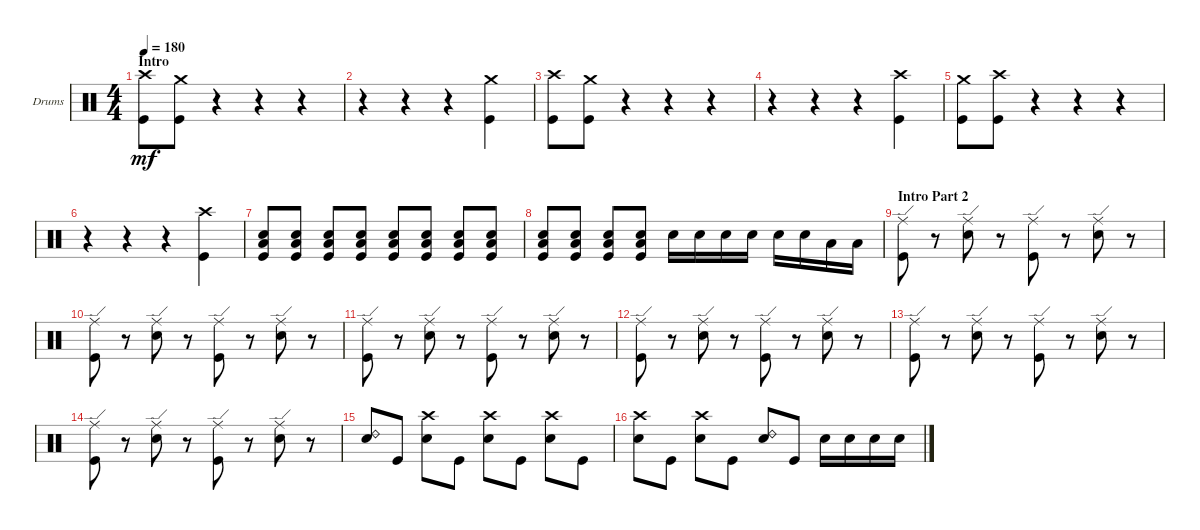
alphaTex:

\defaultSystemsLayout 4
\bracketExtendMode groupsimilarinstruments
\firstSystemTrackNameOrientation horizontal
\otherSystemsTrackNameOrientation horizontal
\track ("Drums" "Drums") {instrument percussion}
\staff {score}
\articulation defaults
\ts (4 4)
\section ("" "Intro")
\tempo 180
\clef neutral
\scale
0.472222
\ks c
("Kick (hit)" "Crash high (hit)").8{dy mf} ("Kick (hit)" "Crash medium (hit)").8 r.4 r.4 r.4 |
\scale
0.263889 r.4 r.4 r.4 ("Kick (hit)" "Crash medium (hit)").4 |
\scale
0.263889 ("Kick (hit)" "Crash high (hit)").8 ("Kick (hit)" "Crash medium (hit)").8 r.4 r.4 r.4 |
\scale
0.333333 r.4 r.4 r.4 ("Kick (hit)" "Crash high (hit)").4 |
\scale
0.333333 ("Kick (hit)" "Crash medium (hit)").8 ("Kick (hit)" "Crash high (hit)").8 r.4 r.4 r.4 |
\scale
0.333333 r.4 r.4 r.4 ("Kick (hit)" "Crash high (hit)").4 |
\scale
0.333333 ("Kick (hit)" "Snare (hit) 2" "Low Tom (hit)").8 ("Kick (hit)" "Snare (hit) 2" "Low Tom (hit)").8 ("Kick (hit)" "Snare (hit) 2" "Low Tom (hit)").8 ("Kick (hit)" "Snare (hit) 2" "Low Tom (hit)").8 ("Kick (hit)" "Snare (hit) 2" "Low Tom (hit)").8 ("Kick (hit)" "Snare (hit) 2" "Low Tom (hit)").8 ("Kick (hit)" "Snare (hit) 2" "Low Tom (hit)").8 ("Kick (hit)" "Snare (hit) 2" "Low Tom (hit)").8 |
\scale
0.333333 ("Kick (hit)" "Snare (hit) 2" "Low Tom (hit)").8 ("Kick (hit)" "Snare (hit) 2" "Low Tom (hit)").8 ("Kick (hit)" "Snare (hit) 2" "Low Tom (hit)").8 ("Kick (hit)" "Snare (hit) 2" "Low Tom (hit)").8 "Snare (hit) 2".16 "Snare (hit) 2".16 "Snare (hit) 2".16 "Snare (hit) 2".16 "Snare (hit) 2".16 "Snare (hit) 2".16 "Low Tom (hit)".16 "Low Tom (hit)".16 |
\section ("" "Intro Part 2")
\scale
0.333333 ("Kick (hit)" "Ride (edge)").8 r.8 ("Snare (hit) 2" "Ride (edge)").8 r.8 ("Kick (hit)" "Ride (edge)").8 r.8 ("Snare (hit) 2" "Ride (edge)").8 r.8 |
\scale
0.333333 ("Kick (hit)" "Ride (edge)").8 r.8 ("Snare (hit) 2" "Ride (edge)").8 r.8 ("Kick (hit)" "Ride (edge)").8 r.8 ("Snare (hit) 2" "Ride (edge)").8 r.8 |
\scale
0.333333 ("Kick (hit)" "Ride (edge)").8 r.8 ("Snare (hit) 2" "Ride (edge)").8 r.8 ("Kick (hit)" "Ride (edge)").8 r.8 ("Snare (hit) 2" "Ride (edge)").8 r.8 |
("Kick (hit)" "Ride (edge)").8 r.8 ("Snare (hit) 2" "Ride (edge)").8 r.8 ("Kick (hit)" "Ride (edge)").8 r.8 ("Snare (hit) 2" "Ride (edge)").8 r.8 |
\scale
0.333333 ("Kick (hit)" "Ride (edge)").8 r.8 ("Snare (hit) 2" "Ride (edge)").8 r.8 ("Kick (hit)" "Ride (edge)").8 r.8 ("Snare (hit) 2" "Ride (edge)").8 r.8 |
\scale
0.333333 ("Kick (hit)" "Ride (edge)").8 r.8 ("Snare (hit) 2" "Ride (edge)").8 r.8 ("Kick (hit)" "Ride (edge)").8 r.8 ("Snare (hit) 2" "Ride (edge)").8 r.8 |
\scale
0.333333 ("Snare (hit) 2" "Ride (bell) 2").8 "Kick (hit)".8 ("Snare (hit) 2" "Crash high (hit)").8 "Kick (hit)".8 ("Snare (hit) 2" "Crash high (hit)").8 "Kick (hit)".8 ("Snare (hit) 2" "Crash high (hit)").8 "Kick (hit)".8 |
\scale
0.333333 ("Snare (hit) 2" "Crash high (hit)").8 "Kick (hit)".8 ("Snare (hit) 2" "Crash high (hit)").8 "Kick (hit)".8 ("Snare (hit) 2" "Ride (bell) 2").8 "Kick (hit)".8 "Snare (hit) 2".16 "Snare (hit) 2".16 "Snare (hit) 2".16 "Snare (hit) 2".16
